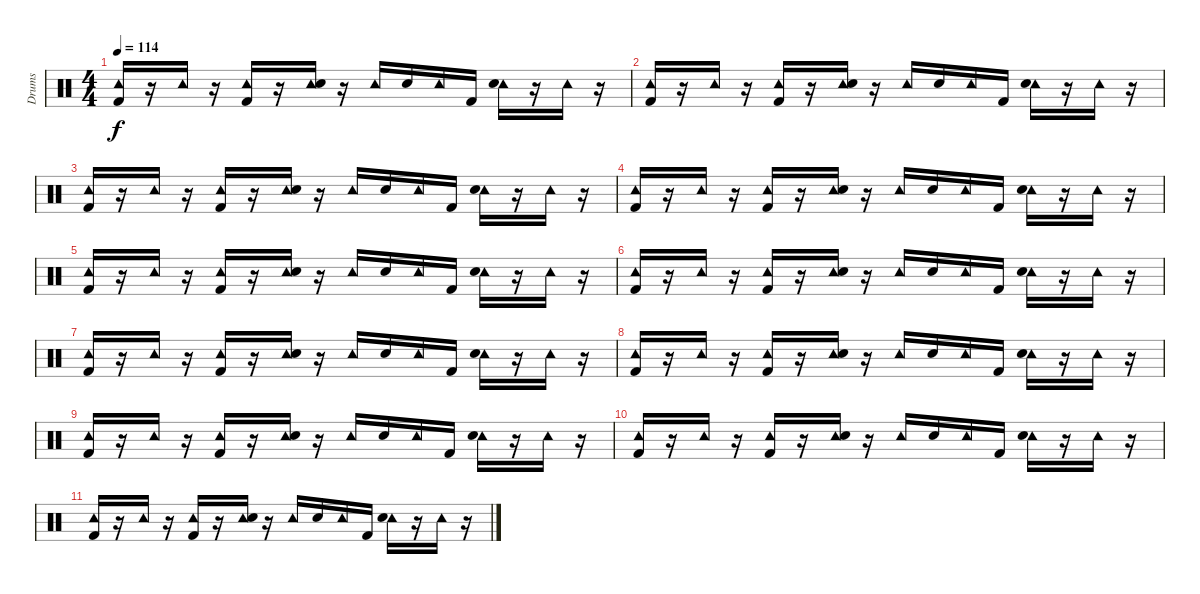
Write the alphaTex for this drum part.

\track ("Drums" "Drums") {instrument percussion bank 127}
\staff {score}
\articulation defaults
\ts (4 4)
\tempo 114
\clef neutral
\ks c
("Tambourine (hit)" "Kick (hit) 2").16{dy f} r.16 "Tambourine (hit)".16 r.16 ("Tambourine (hit)" "Kick (hit) 2").16 r.16 ("Tambourine (hit)" "Electric Snare (hit)").16 r.16 "Tambourine (hit)".16 "Electric Snare (hit)".16 "Tambourine (hit)".16 "Kick (hit) 2".16 ("Tambourine (hit)" "Electric Snare (hit)").16 r.16 "Tambourine (hit)".16 r.16 |
("Tambourine (hit)" "Kick (hit) 2").16 r.16 "Tambourine (hit)".16 r.16 ("Tambourine (hit)" "Kick (hit) 2").16 r.16 ("Tambourine (hit)" "Electric Snare (hit)").16 r.16 "Tambourine (hit)".16 "Electric Snare (hit)".16 "Tambourine (hit)".16 "Kick (hit) 2".16 ("Tambourine (hit)" "Electric Snare (hit)").16 r.16 "Tambourine (hit)".16 r.16 |
("Tambourine (hit)" "Kick (hit) 2").16 r.16 "Tambourine (hit)".16 r.16 ("Tambourine (hit)" "Kick (hit) 2").16 r.16 ("Tambourine (hit)" "Electric Snare (hit)").16 r.16 "Tambourine (hit)".16 "Electric Snare (hit)".16 "Tambourine (hit)".16 "Kick (hit) 2".16 ("Tambourine (hit)" "Electric Snare (hit)").16 r.16 "Tambourine (hit)".16 r.16 |
("Tambourine (hit)" "Kick (hit) 2").16 r.16 "Tambourine (hit)".16 r.16 ("Tambourine (hit)" "Kick (hit) 2").16 r.16 ("Tambourine (hit)" "Electric Snare (hit)").16 r.16 "Tambourine (hit)".16 "Electric Snare (hit)".16 "Tambourine (hit)".16 "Kick (hit) 2".16 ("Tambourine (hit)" "Electric Snare (hit)").16 r.16 "Tambourine (hit)".16 r.16 |
("Tambourine (hit)" "Kick (hit) 2").16 r.16 "Tambourine (hit)".16 r.16 ("Tambourine (hit)" "Kick (hit) 2").16 r.16 ("Tambourine (hit)" "Electric Snare (hit)").16 r.16 "Tambourine (hit)".16 "Electric Snare (hit)".16 "Tambourine (hit)".16 "Kick (hit) 2".16 ("Tambourine (hit)" "Electric Snare (hit)").16 r.16 "Tambourine (hit)".16 r.16 |
("Tambourine (hit)" "Kick (hit) 2").16 r.16 "Tambourine (hit)".16 r.16 ("Tambourine (hit)" "Kick (hit) 2").16 r.16 ("Tambourine (hit)" "Electric Snare (hit)").16 r.16 "Tambourine (hit)".16 "Electric Snare (hit)".16 "Tambourine (hit)".16 "Kick (hit) 2".16 ("Tambourine (hit)" "Electric Snare (hit)").16 r.16 "Tambourine (hit)".16 r.16 |
("Tambourine (hit)" "Kick (hit) 2").16 r.16 "Tambourine (hit)".16 r.16 ("Tambourine (hit)" "Kick (hit) 2").16 r.16 ("Tambourine (hit)" "Electric Snare (hit)").16 r.16 "Tambourine (hit)".16 "Electric Snare (hit)".16 "Tambourine (hit)".16 "Kick (hit) 2".16 ("Tambourine (hit)" "Electric Snare (hit)").16 r.16 "Tambourine (hit)".16 r.16 |
("Tambourine (hit)" "Kick (hit) 2").16 r.16 "Tambourine (hit)".16 r.16 ("Tambourine (hit)" "Kick (hit) 2").16 r.16 ("Tambourine (hit)" "Electric Snare (hit)").16 r.16 "Tambourine (hit)".16 "Electric Snare (hit)".16 "Tambourine (hit)".16 "Kick (hit) 2".16 ("Tambourine (hit)" "Electric Snare (hit)").16 r.16 "Tambourine (hit)".16 r.16 |
("Tambourine (hit)" "Kick (hit) 2").16 r.16 "Tambourine (hit)".16 r.16 ("Tambourine (hit)" "Kick (hit) 2").16 r.16 ("Tambourine (hit)" "Electric Snare (hit)").16 r.16 "Tambourine (hit)".16 "Electric Snare (hit)".16 "Tambourine (hit)".16 "Kick (hit) 2".16 ("Tambourine (hit)" "Electric Snare (hit)").16 r.16 "Tambourine (hit)".16 r.16 |
("Tambourine (hit)" "Kick (hit) 2").16 r.16 "Tambourine (hit)".16 r.16 ("Tambourine (hit)" "Kick (hit) 2").16 r.16 ("Tambourine (hit)" "Electric Snare (hit)").16 r.16 "Tambourine (hit)".16 "Electric Snare (hit)".16 "Tambourine (hit)".16 "Kick (hit) 2".16 ("Tambourine (hit)" "Electric Snare (hit)").16 r.16 "Tambourine (hit)".16 r.16 |
("Tambourine (hit)" "Kick (hit) 2").16 r.16 "Tambourine (hit)".16 r.16 ("Tambourine (hit)" "Kick (hit) 2").16 r.16 ("Tambourine (hit)" "Electric Snare (hit)").16 r.16 "Tambourine (hit)".16 "Electric Snare (hit)".16 "Tambourine (hit)".16 "Kick (hit) 2".16 ("Tambourine (hit)" "Electric Snare (hit)").16 r.16 "Tambourine (hit)".16 r.16
